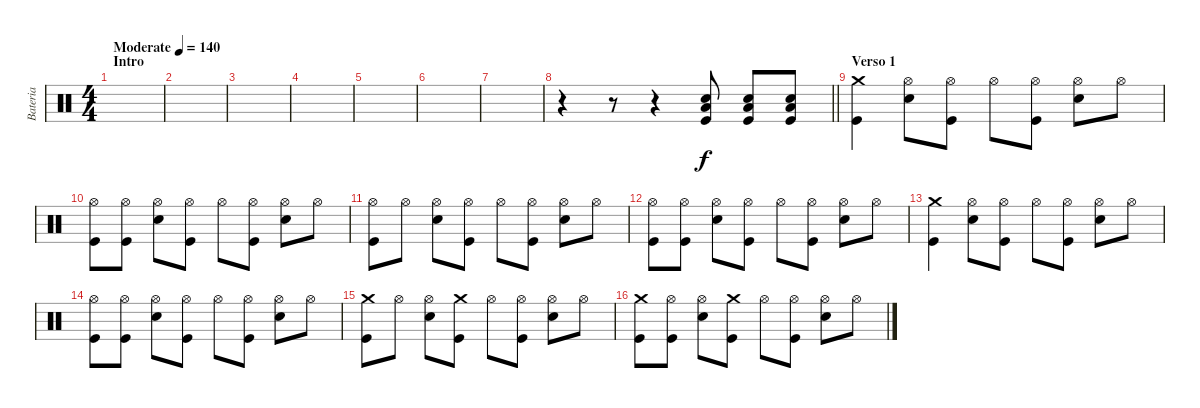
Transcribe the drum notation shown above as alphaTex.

\track ("Bateria" "Bateria") {instrument percussion}
\staff {score}
\articulation defaults
\ts (4 4)
\section ("" "Intro")
\tempo (140 "Moderate")
\clef neutral
\ks c
|
|
|
|
|
|
|
\barLineRight lightlight
r.4 r.8 r.4 ("Kick (hit)" "Snare (hit) 2" "Low Floor Tom (hit)").8 ("Kick (hit)" "Snare (hit) 2" "Low Floor Tom (hit)").8 ("Kick (hit)" "Snare (hit) 2" "Low Floor Tom (hit)").8 |
\section ("" "Verso 1")
("Kick (hit)" "Crash medium (hit)").4 ("Snare (hit) 2" "Hi-Hat (open)").8 ("Kick (hit)" "Hi-Hat (open)").8 "Hi-Hat (open)".8 ("Kick (hit)" "Hi-Hat (open)").8 ("Snare (hit) 2" "Hi-Hat (open)").8 "Hi-Hat (open)".8 |
("Kick (hit)" "Hi-Hat (open)").8 ("Kick (hit)" "Hi-Hat (open)").8 ("Snare (hit) 2" "Hi-Hat (open)").8 ("Kick (hit)" "Hi-Hat (open)").8 "Hi-Hat (open)".8 ("Kick (hit)" "Hi-Hat (open)").8 ("Snare (hit) 2" "Hi-Hat (open)").8 "Hi-Hat (open)".8 |
("Kick (hit)" "Hi-Hat (open)").8 "Hi-Hat (open)".8 ("Snare (hit) 2" "Hi-Hat (open)").8 ("Kick (hit)" "Hi-Hat (open)").8 "Hi-Hat (open)".8 ("Kick (hit)" "Hi-Hat (open)").8 ("Snare (hit) 2" "Hi-Hat (open)").8 "Hi-Hat (open)".8 |
("Kick (hit)" "Hi-Hat (open)").8 ("Kick (hit)" "Hi-Hat (open)").8 ("Snare (hit) 2" "Hi-Hat (open)").8 ("Kick (hit)" "Hi-Hat (open)").8 "Hi-Hat (open)".8 ("Kick (hit)" "Hi-Hat (open)").8 ("Snare (hit) 2" "Hi-Hat (open)").8 "Hi-Hat (open)".8 |
("Kick (hit)" "Crash medium (hit)").4 ("Snare (hit) 2" "Hi-Hat (open)").8 ("Kick (hit)" "Hi-Hat (open)").8 "Hi-Hat (open)".8 ("Kick (hit)" "Hi-Hat (open)").8 ("Snare (hit) 2" "Hi-Hat (open)").8 "Hi-Hat (open)".8 |
("Kick (hit)" "Hi-Hat (open)").8 ("Kick (hit)" "Hi-Hat (open)").8 ("Snare (hit) 2" "Hi-Hat (open)").8 ("Kick (hit)" "Hi-Hat (open)").8 "Hi-Hat (open)".8 ("Kick (hit)" "Hi-Hat (open)").8 ("Snare (hit) 2" "Hi-Hat (open)").8 "Hi-Hat (open)".8 |
("Kick (hit)" "Crash medium (hit)").8 "Hi-Hat (open)".8 ("Snare (hit) 2" "Hi-Hat (open)").8 ("Kick (hit)" "Crash medium (hit)").8 "Hi-Hat (open)".8 ("Kick (hit)" "Hi-Hat (open)").8 ("Snare (hit) 2" "Hi-Hat (open)").8 "Hi-Hat (open)".8 |
("Kick (hit)" "Crash medium (hit)").8 ("Kick (hit)" "Hi-Hat (open)").8 ("Snare (hit) 2" "Hi-Hat (open)").8 ("Kick (hit)" "Crash medium (hit)").8 "Hi-Hat (open)".8 ("Kick (hit)" "Hi-Hat (open)").8 ("Snare (hit) 2" "Hi-Hat (open)").8 "Hi-Hat (open)".8
